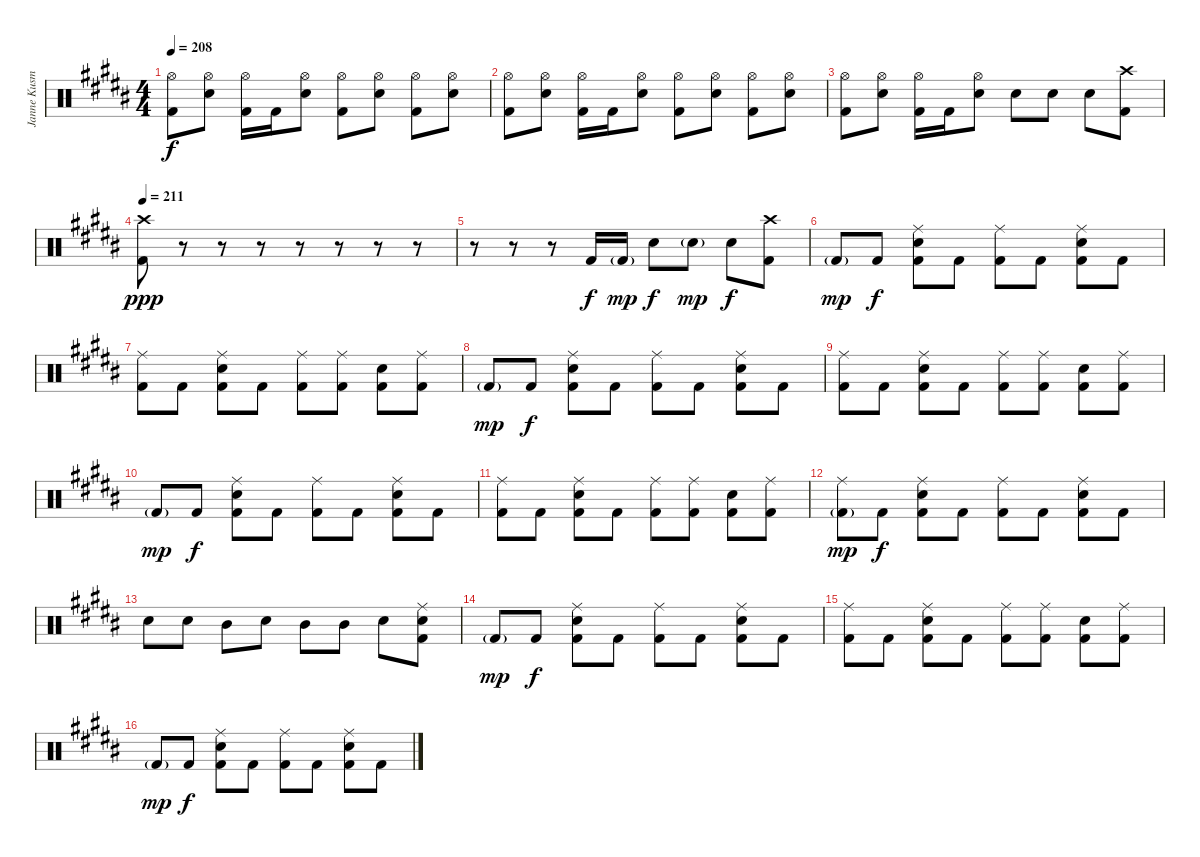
\track ("Janne Kusmin" "Janne Kusm") {instrument percussion}
\staff {score}
\articulation defaults
\ts (4 4)
\tempo 208
\clef neutral
\ks b
("Hi-Hat (open)" "Kick (hit) 2").8{dy f} ("Hi-Hat (open)" "Electric Snare (hit)").8 ("Hi-Hat (open)" "Kick (hit) 2").16 "Kick (hit) 2".16 ("Hi-Hat (open)" "Electric Snare (hit)").8 ("Hi-Hat (open)" "Kick (hit) 2").8 ("Hi-Hat (open)" "Electric Snare (hit)").8 ("Hi-Hat (open)" "Kick (hit) 2").8 ("Hi-Hat (open)" "Electric Snare (hit)").8 |
("Hi-Hat (open)" "Kick (hit) 2").8 ("Hi-Hat (open)" "Electric Snare (hit)").8 ("Hi-Hat (open)" "Kick (hit) 2").16 "Kick (hit) 2".16 ("Hi-Hat (open)" "Electric Snare (hit)").8 ("Hi-Hat (open)" "Kick (hit) 2").8 ("Hi-Hat (open)" "Electric Snare (hit)").8 ("Hi-Hat (open)" "Kick (hit) 2").8 ("Hi-Hat (open)" "Electric Snare (hit)").8 |
("Hi-Hat (open)" "Kick (hit) 2").8 ("Hi-Hat (open)" "Electric Snare (hit)").8 ("Hi-Hat (open)" "Kick (hit) 2").16 "Kick (hit) 2".16 ("Hi-Hat (open)" "Electric Snare (hit)").8 "Electric Snare (hit)".8 "Electric Snare (hit)".8 "Electric Snare (hit)".8 ("Crash high (hit)" "Kick (hit) 2").8 |
\tempo 211
("Crash high (hit)" "Kick (hit) 2").8{dy ppp} r.8 r.8 r.8 r.8 r.8 r.8 r.8 |
\ks g#minor
r.8 r.8 r.8 "Kick (hit) 2".16{dy f} "Kick (hit) 2"{g}.16{dy mp} "Electric Snare (hit)".8{dy f} "Electric Snare (hit)"{g}.8{dy mp} "Electric Snare (hit)".8{dy f} ("Crash high (hit)" "Kick (hit) 2").8 |
"Kick (hit) 2"{g}.8{dy mp} "Kick (hit) 2".8{dy f} ("Ride (middle)" "Electric Snare (hit)" "Kick (hit) 2").8 "Kick (hit) 2".8 ("Ride (middle)" "Kick (hit) 2").8 "Kick (hit) 2".8 ("Ride (middle)" "Electric Snare (hit)" "Kick (hit) 2").8 "Kick (hit) 2".8 |
\ks b
("Ride (middle)" "Kick (hit) 2").8 "Kick (hit) 2".8 ("Ride (middle)" "Electric Snare (hit)" "Kick (hit) 2").8 "Kick (hit) 2".8 ("Ride (middle)" "Kick (hit) 2").8 ("Ride (middle)" "Kick (hit) 2").8 ("Electric Snare (hit)" "Kick (hit) 2").8 ("Ride (middle)" "Kick (hit) 2").8 |
\ks g#minor "Kick (hit) 2"{g}.8{dy mp} "Kick (hit) 2".8{dy f}
("Ride (middle)" "Electric Snare (hit)" "Kick (hit) 2").8 "Kick (hit) 2".8 ("Ride (middle)" "Kick (hit) 2").8 "Kick (hit) 2".8 ("Ride (middle)" "Electric Snare (hit)" "Kick (hit) 2").8 "Kick (hit) 2".8 |
\ks b
("Ride (middle)" "Kick (hit) 2").8 "Kick (hit) 2".8 ("Ride (middle)" "Electric Snare (hit)" "Kick (hit) 2").8 "Kick (hit) 2".8 ("Ride (middle)" "Kick (hit) 2").8 ("Ride (middle)" "Kick (hit) 2").8 ("Electric Snare (hit)" "Kick (hit) 2").8 ("Ride (middle)" "Kick (hit) 2").8 |
\ks g#minor "Kick (hit) 2"{g}.8{dy mp} "Kick (hit) 2".8{dy f}
("Ride (middle)" "Electric Snare (hit)" "Kick (hit) 2").8 "Kick (hit) 2".8 ("Ride (middle)" "Kick (hit) 2").8 "Kick (hit) 2".8 ("Ride (middle)" "Electric Snare (hit)" "Kick (hit) 2").8 "Kick (hit) 2".8 |
\ks b
("Ride (middle)" "Kick (hit) 2").8 "Kick (hit) 2".8 ("Ride (middle)" "Electric Snare (hit)" "Kick (hit) 2").8 "Kick (hit) 2".8 ("Ride (middle)" "Kick (hit) 2").8 ("Ride (middle)" "Kick (hit) 2").8 ("Electric Snare (hit)" "Kick (hit) 2").8 ("Ride (middle)" "Kick (hit) 2").8 |
\ks g#minor
("Ride (middle)" "Kick (hit) 2"{g}).8{dy mp} "Kick (hit) 2".8{dy f} ("Ride (middle)" "Electric Snare (hit)" "Kick (hit) 2").8 "Kick (hit) 2".8 ("Ride (middle)" "Kick (hit) 2").8 "Kick (hit) 2".8 ("Ride (middle)" "Electric Snare (hit)" "Kick (hit) 2").8 "Kick (hit) 2".8 |
\ks b "Electric Snare (hit)".8 "Electric Snare (hit)".8 "Mid Tom (hit)".8 "Electric Snare (hit)".8 "Mid Tom (hit)".8 "Mid Tom (hit)".8 "Electric Snare (hit)".8
("Ride (middle)" "Electric Snare (hit)" "Kick (hit) 2").8 |
\ks g#minor "Kick (hit) 2"{g}.8{dy mp} "Kick (hit) 2".8{dy f}
("Ride (middle)" "Electric Snare (hit)" "Kick (hit) 2").8 "Kick (hit) 2".8 ("Ride (middle)" "Kick (hit) 2").8 "Kick (hit) 2".8 ("Ride (middle)" "Electric Snare (hit)" "Kick (hit) 2").8 "Kick (hit) 2".8 |
\ks b
("Ride (middle)" "Kick (hit) 2").8 "Kick (hit) 2".8 ("Ride (middle)" "Electric Snare (hit)" "Kick (hit) 2").8 "Kick (hit) 2".8 ("Ride (middle)" "Kick (hit) 2").8 ("Ride (middle)" "Kick (hit) 2").8 ("Electric Snare (hit)" "Kick (hit) 2").8 ("Ride (middle)" "Kick (hit) 2").8 |
\ks g#minor "Kick (hit) 2"{g}.8{dy mp} "Kick (hit) 2".8{dy f}
("Ride (middle)" "Electric Snare (hit)" "Kick (hit) 2").8 "Kick (hit) 2".8 ("Ride (middle)" "Kick (hit) 2").8 "Kick (hit) 2".8 ("Ride (middle)" "Electric Snare (hit)" "Kick (hit) 2").8 "Kick (hit) 2".8
